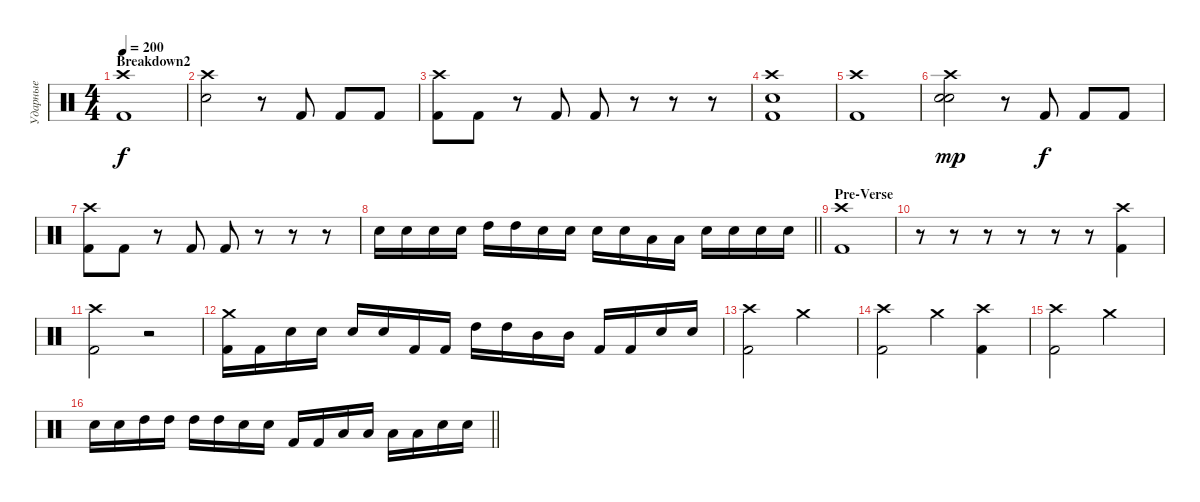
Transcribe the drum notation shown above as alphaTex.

\track ("Ударные" "Ударные") {instrument percussion}
\staff {score}
\articulation defaults
\ts (4 4)
\section ("" "Breakdown2")
\tempo 200
\clef neutral
\ks c
("Crash high (hit)" "Kick (hit) 2").1{dy f} |
("Crash high (hit)" "Electric Snare (hit)").2 r.8 "Kick (hit) 2".8 "Kick (hit) 2".8 "Kick (hit) 2".8 |
("Crash high (hit)" "Kick (hit) 2").8 "Kick (hit) 2".8 r.8 "Kick (hit) 2".8 "Kick (hit) 2".8 r.8 r.8 r.8 |
("Crash high (hit)" "Electric Snare (hit)" "Kick (hit) 2").1 |
("Crash high (hit)" "Kick (hit) 2").1 |
("Crash high (hit)" "Electric Snare (hit)" "Snare (hit) 2").2{dy mp} r.8 "Kick (hit) 2".8{dy f} "Kick (hit) 2".8 "Kick (hit) 2".8 |
("Crash high (hit)" "Kick (hit) 2").8 "Kick (hit) 2".8 r.8 "Kick (hit) 2".8 "Kick (hit) 2".8 r.8 r.8 r.8 |
\barLineRight lightlight "Electric Snare (hit)".16 "Electric Snare (hit)".16 "Electric Snare (hit)".16 "Electric Snare (hit)".16 "High Tom (hit)".16 "High Tom (hit)".16 "Electric Snare (hit)".16 "Electric Snare (hit)".16 "Electric Snare (hit)".16 "Electric Snare (hit)".16 "Low Tom (hit)".16 "Low Tom (hit)".16 "Electric Snare (hit)".16 "Electric Snare (hit)".16 "Electric Snare (hit)".16 "Electric Snare (hit)".16
|
\section ("" "Pre-Verse")
("Crash high (hit)" "Kick (hit) 2").1 |
r.8 r.8 r.8 r.8 r.8 r.8 ("Crash high (hit)" "Kick (hit) 2").4 |
("Crash high (hit)" "Kick (hit) 2").2 r.2 |
("Crash medium (hit)" "Kick (hit) 2").16 "Kick (hit) 2".16 "Electric Snare (hit)".16 "Electric Snare (hit)".16 "Electric Snare (hit)".16 "Electric Snare (hit)".16 "Kick (hit) 2".16 "Kick (hit) 2".16 "High Tom (hit)".16 "High Tom (hit)".16 "Mid Tom (hit)".16 "Mid Tom (hit)".16 "Kick (hit) 2".16 "Kick (hit) 2".16 "Electric Snare (hit)".16 "Electric Snare (hit)".16 |
("Crash high (hit)" "Kick (hit) 2").2 "Crash medium (hit)".2 |
("Crash high (hit)" "Kick (hit) 2").2 "Crash medium (hit)".4 ("Crash high (hit)" "Kick (hit) 2").4 |
("Crash high (hit)" "Kick (hit) 2").2 "Crash medium (hit)".2 |
\barLineRight lightlight "Electric Snare (hit)".16 "Electric Snare (hit)".16 "High Tom (hit)".16 "High Tom (hit)".16 "High Tom (hit)".16 "High Tom (hit)".16 "Electric Snare (hit)".16 "Electric Snare (hit)".16 "Kick (hit) 2".16 "Kick (hit) 2".16 "Low Tom (hit)".16 "Low Tom (hit)".16 "Low Tom (hit)".16 "Low Tom (hit)".16 "Electric Snare (hit)".16 "Electric Snare (hit)".16
